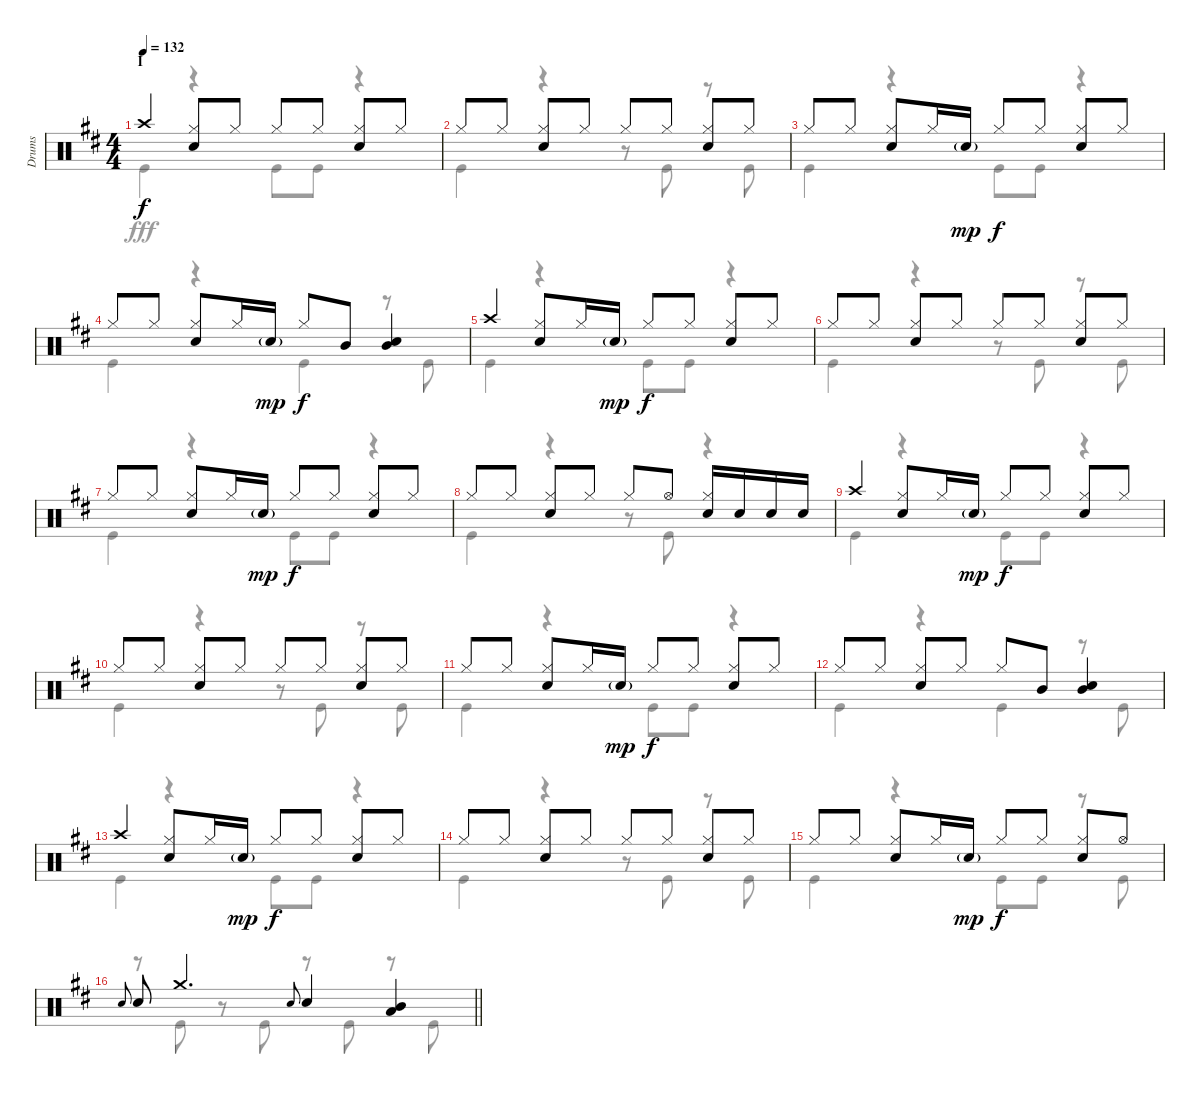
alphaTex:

\track ("Drums" "Drums") {instrument percussion}
\staff {score}
\articulation defaults
\voice
\ts (4 4)
\section ("" "I")
\tempo 132
\clef neutral
\ks d "Crash high (hit)".4{dy f}
("Hi-Hat (closed)" "Snare (hit) 2").8 "Hi-Hat (closed)".8 "Hi-Hat (closed)".8 "Hi-Hat (closed)".8 ("Hi-Hat (closed)" "Snare (hit) 2").8 "Hi-Hat (closed)".8 |
"Hi-Hat (closed)".8 "Hi-Hat (closed)".8 ("Hi-Hat (closed)" "Snare (hit) 2").8 "Hi-Hat (closed)".8 "Hi-Hat (closed)".8 "Hi-Hat (closed)".8 ("Hi-Hat (closed)" "Snare (hit) 2").8 "Hi-Hat (closed)".8 |
"Hi-Hat (closed)".8 "Hi-Hat (closed)".8 ("Hi-Hat (closed)" "Snare (hit) 2").8 "Hi-Hat (closed)".16 "Snare (hit) 2"{g}.16{dy mp} "Hi-Hat (closed)".8{dy f} "Hi-Hat (closed)".8 ("Hi-Hat (closed)" "Snare (hit) 2").8 "Hi-Hat (closed)".8 |
"Hi-Hat (closed)".8 "Hi-Hat (closed)".8 ("Hi-Hat (closed)" "Snare (hit) 2").8 "Hi-Hat (closed)".16 "Snare (hit) 2"{g}.16{dy mp} "Hi-Hat (closed)".8{dy f} "Mid Tom (hit)".8 ("Mid Tom (hit)" "Snare (hit) 2").4 |
"Crash high (hit)".4 ("Hi-Hat (closed)" "Snare (hit) 2").8 "Hi-Hat (closed)".16 "Snare (hit) 2"{g}.16{dy mp} "Hi-Hat (closed)".8{dy f} "Hi-Hat (closed)".8 ("Hi-Hat (closed)" "Snare (hit) 2").8 "Hi-Hat (closed)".8 |
"Hi-Hat (closed)".8 "Hi-Hat (closed)".8 ("Hi-Hat (closed)" "Snare (hit) 2").8 "Hi-Hat (closed)".8 "Hi-Hat (closed)".8 "Hi-Hat (closed)".8 ("Hi-Hat (closed)" "Snare (hit) 2").8 "Hi-Hat (closed)".8 |
"Hi-Hat (closed)".8 "Hi-Hat (closed)".8 ("Hi-Hat (closed)" "Snare (hit) 2").8 "Hi-Hat (closed)".16 "Snare (hit) 2"{g}.16{dy mp} "Hi-Hat (closed)".8{dy f} "Hi-Hat (closed)".8 ("Hi-Hat (closed)" "Snare (hit) 2").8 "Hi-Hat (closed)".8 |
"Hi-Hat (closed)".8 "Hi-Hat (closed)".8 ("Hi-Hat (closed)" "Snare (hit) 2").8 "Hi-Hat (closed)".8 "Hi-Hat (closed)".8 "Hi-Hat (open)".8 ("Hi-Hat (closed)" "Snare (hit) 2").16 "Snare (hit) 2".16 "Snare (hit) 2".16 "Snare (hit) 2".16 |
"Crash high (hit)".4 ("Hi-Hat (closed)" "Snare (hit) 2").8 "Hi-Hat (closed)".16 "Snare (hit) 2"{g}.16{dy mp} "Hi-Hat (closed)".8{dy f} "Hi-Hat (closed)".8 ("Hi-Hat (closed)" "Snare (hit) 2").8 "Hi-Hat (closed)".8 |
"Hi-Hat (closed)".8 "Hi-Hat (closed)".8 ("Hi-Hat (closed)" "Snare (hit) 2").8 "Hi-Hat (closed)".8 "Hi-Hat (closed)".8 "Hi-Hat (closed)".8 ("Hi-Hat (closed)" "Snare (hit) 2").8 "Hi-Hat (closed)".8 |
"Hi-Hat (closed)".8 "Hi-Hat (closed)".8 ("Hi-Hat (closed)" "Snare (hit) 2").8 "Hi-Hat (closed)".16 "Snare (hit) 2"{g}.16{dy mp} "Hi-Hat (closed)".8{dy f} "Hi-Hat (closed)".8 ("Hi-Hat (closed)" "Snare (hit) 2").8 "Hi-Hat (closed)".8 |
"Hi-Hat (closed)".8 "Hi-Hat (closed)".8 ("Hi-Hat (closed)" "Snare (hit) 2").8 "Hi-Hat (closed)".8 "Hi-Hat (closed)".8 "Mid Tom (hit)".8 ("Mid Tom (hit)" "Snare (hit) 2").4 |
"Crash high (hit)".4 ("Hi-Hat (closed)" "Snare (hit) 2").8 "Hi-Hat (closed)".16 "Snare (hit) 2"{g}.16{dy mp} "Hi-Hat (closed)".8{dy f} "Hi-Hat (closed)".8 ("Hi-Hat (closed)" "Snare (hit) 2").8 "Hi-Hat (closed)".8 |
"Hi-Hat (closed)".8 "Hi-Hat (closed)".8 ("Hi-Hat (closed)" "Snare (hit) 2").8 "Hi-Hat (closed)".8 "Hi-Hat (closed)".8 "Hi-Hat (closed)".8 ("Hi-Hat (closed)" "Snare (hit) 2").8 "Hi-Hat (closed)".8 |
"Hi-Hat (closed)".8 "Hi-Hat (closed)".8 ("Hi-Hat (closed)" "Snare (hit) 2").8 "Hi-Hat (closed)".16 "Snare (hit) 2"{g}.16{dy mp} "Hi-Hat (closed)".8{dy f} "Hi-Hat (closed)".8 ("Hi-Hat (closed)" "Snare (hit) 2").8 "Hi-Hat (open)".8 |
\barLineRight lightlight "Snare (hit) 2".8{gr onbeat} "Snare (hit) 2".8 "Crash medium (hit)".4{d} "Snare (hit) 2".8{gr onbeat} "Snare (hit) 2".4
("Mid Tom (hit)" "Low Tom (hit)").4
\voice
\clef neutral
\ottava regular
\simile none
\ks d "Kick (hit)".4{dy fff}
r.4 "Kick (hit)".8 "Kick (hit)".8 r.4 |
"Kick (hit)".4 r.4 r.8 "Kick (hit)".8 r.8 "Kick (hit)".8 |
"Kick (hit)".4 r.4 "Kick (hit)".8 "Kick (hit)".8 r.4 |
"Kick (hit)".4 r.4 "Kick (hit)".4 r.8 "Kick (hit)".8 |
"Kick (hit)".4 r.4 "Kick (hit)".8 "Kick (hit)".8 r.4 |
"Kick (hit)".4 r.4 r.8 "Kick (hit)".8 r.8 "Kick (hit)".8 |
"Kick (hit)".4 r.4 "Kick (hit)".8 "Kick (hit)".8 r.4 |
"Kick (hit)".4 r.4 r.8 "Kick (hit)".8 r.4 |
"Kick (hit)".4 r.4 "Kick (hit)".8 "Kick (hit)".8 r.4 |
"Kick (hit)".4 r.4 r.8 "Kick (hit)".8 r.8 "Kick (hit)".8 |
"Kick (hit)".4 r.4 "Kick (hit)".8 "Kick (hit)".8 r.4 |
"Kick (hit)".4 r.4 "Kick (hit)".4 r.8 "Kick (hit)".8 |
"Kick (hit)".4 r.4 "Kick (hit)".8 "Kick (hit)".8 r.4 |
"Kick (hit)".4 r.4 r.8 "Kick (hit)".8 r.8 "Kick (hit)".8 |
"Kick (hit)".4 r.4 "Kick (hit)".8 "Kick (hit)".8 r.8 "Kick (hit)".8 |
\barLineRight lightlight
r.8 "Kick (hit)".8 r.8 "Kick (hit)".8 r.8 "Kick (hit)".8 r.8 "Kick (hit)".8
